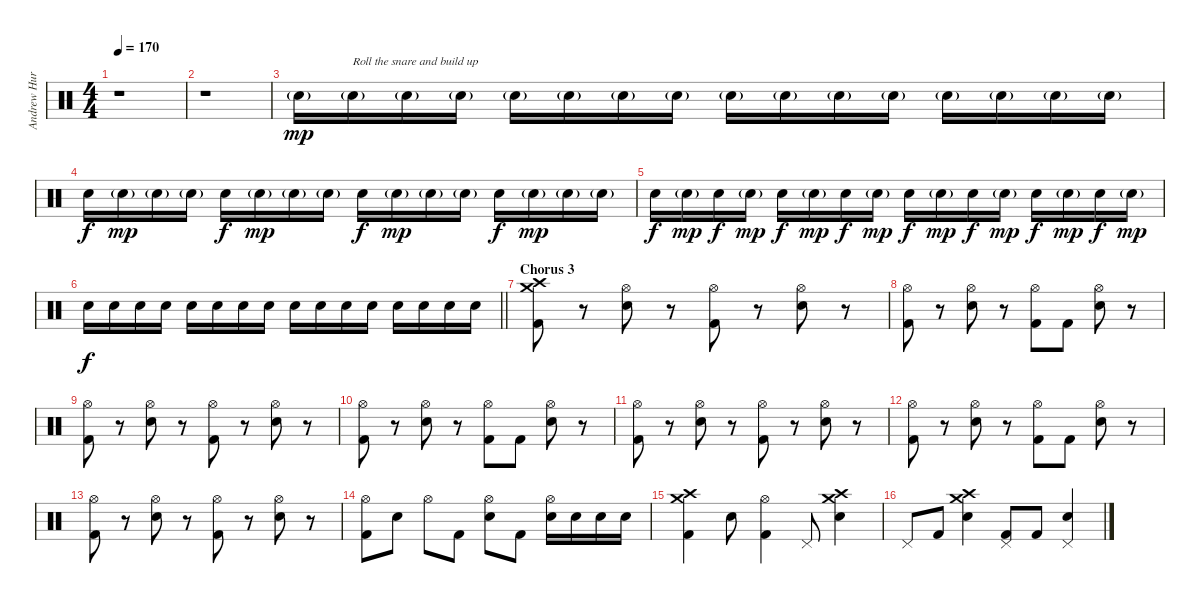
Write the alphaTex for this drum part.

\track ("Andrew Hurley (Drums)" "Andrew Hur") {instrument percussion}
\staff {score}
\articulation defaults
\ts (4 4)
\tempo 170
\clef neutral
\ks c
r.1{dy f} |
r.1 |
"Electric Snare (hit)"{g}.16{dy mp} "Electric Snare (hit)"{g}.16{txt "Roll the snare and build up"} "Electric Snare (hit)"{g}.16 "Electric Snare (hit)"{g}.16 "Electric Snare (hit)"{g}.16 "Electric Snare (hit)"{g}.16 "Electric Snare (hit)"{g}.16 "Electric Snare (hit)"{g}.16 "Electric Snare (hit)"{g}.16 "Electric Snare (hit)"{g}.16 "Electric Snare (hit)"{g}.16 "Electric Snare (hit)"{g}.16 "Electric Snare (hit)"{g}.16 "Electric Snare (hit)"{g}.16 "Electric Snare (hit)"{g}.16 "Electric Snare (hit)"{g}.16 |
"Electric Snare (hit)".16{dy f} "Electric Snare (hit)"{g}.16{dy mp} "Electric Snare (hit)"{g}.16 "Electric Snare (hit)"{g}.16 "Electric Snare (hit)".16{dy f} "Electric Snare (hit)"{g}.16{dy mp} "Electric Snare (hit)"{g}.16 "Electric Snare (hit)"{g}.16 "Electric Snare (hit)".16{dy f} "Electric Snare (hit)"{g}.16{dy mp} "Electric Snare (hit)"{g}.16 "Electric Snare (hit)"{g}.16 "Electric Snare (hit)".16{dy f} "Electric Snare (hit)"{g}.16{dy mp} "Electric Snare (hit)"{g}.16 "Electric Snare (hit)"{g}.16 |
"Electric Snare (hit)".16{dy f} "Electric Snare (hit)"{g}.16{dy mp} "Electric Snare (hit)".16{dy f} "Electric Snare (hit)"{g}.16{dy mp} "Electric Snare (hit)".16{dy f} "Electric Snare (hit)"{g}.16{dy mp} "Electric Snare (hit)".16{dy f} "Electric Snare (hit)"{g}.16{dy mp} "Electric Snare (hit)".16{dy f} "Electric Snare (hit)"{g}.16{dy mp} "Electric Snare (hit)".16{dy f} "Electric Snare (hit)"{g}.16{dy mp} "Electric Snare (hit)".16{dy f} "Electric Snare (hit)"{g}.16{dy mp} "Electric Snare (hit)".16{dy f} "Electric Snare (hit)"{g}.16{dy mp} |
\barLineRight lightlight "Electric Snare (hit)".16{dy f} "Electric Snare (hit)".16 "Electric Snare (hit)".16 "Electric Snare (hit)".16 "Electric Snare (hit)".16 "Electric Snare (hit)".16 "Electric Snare (hit)".16 "Electric Snare (hit)".16 "Electric Snare (hit)".16 "Electric Snare (hit)".16 "Electric Snare (hit)".16 "Electric Snare (hit)".16 "Electric Snare (hit)".16 "Electric Snare (hit)".16 "Electric Snare (hit)".16 "Electric Snare (hit)".16
|
\section ("" "Chorus 3")
("Crash high (hit)" "Crash medium (hit)" "Kick (hit) 2").8 r.8 ("Hi-Hat (open)" "Electric Snare (hit)").8 r.8 ("Hi-Hat (open)" "Kick (hit) 2").8 r.8 ("Hi-Hat (open)" "Electric Snare (hit)").8 r.8 |
("Hi-Hat (open)" "Kick (hit) 2").8 r.8 ("Hi-Hat (open)" "Electric Snare (hit)").8 r.8 ("Hi-Hat (open)" "Kick (hit) 2").8 "Kick (hit) 2".8 ("Hi-Hat (open)" "Electric Snare (hit)").8 r.8 |
("Hi-Hat (open)" "Kick (hit) 2").8 r.8 ("Hi-Hat (open)" "Electric Snare (hit)").8 r.8 ("Hi-Hat (open)" "Kick (hit) 2").8 r.8 ("Hi-Hat (open)" "Electric Snare (hit)").8 r.8 |
("Hi-Hat (open)" "Kick (hit) 2").8 r.8 ("Hi-Hat (open)" "Electric Snare (hit)").8 r.8 ("Hi-Hat (open)" "Kick (hit) 2").8 "Kick (hit) 2".8 ("Hi-Hat (open)" "Electric Snare (hit)").8 r.8 |
("Hi-Hat (open)" "Kick (hit) 2").8 r.8 ("Hi-Hat (open)" "Electric Snare (hit)").8 r.8 ("Hi-Hat (open)" "Kick (hit) 2").8 r.8 ("Hi-Hat (open)" "Electric Snare (hit)").8 r.8 |
("Hi-Hat (open)" "Kick (hit) 2").8 r.8 ("Hi-Hat (open)" "Electric Snare (hit)").8 r.8 ("Hi-Hat (open)" "Kick (hit) 2").8 "Kick (hit) 2".8 ("Hi-Hat (open)" "Electric Snare (hit)").8 r.8 |
("Hi-Hat (open)" "Kick (hit) 2").8 r.8 ("Hi-Hat (open)" "Electric Snare (hit)").8 r.8 ("Hi-Hat (open)" "Kick (hit) 2").8 r.8 ("Hi-Hat (open)" "Electric Snare (hit)").8 r.8 |
("Hi-Hat (open)" "Kick (hit) 2").8 "Electric Snare (hit)".8 "Hi-Hat (open)".8 "Kick (hit) 2".8 ("Hi-Hat (open)" "Electric Snare (hit)").8 "Kick (hit) 2".8 ("Hi-Hat (open)" "Electric Snare (hit)").16 "Electric Snare (hit)".16 "Electric Snare (hit)".16 "Electric Snare (hit)".16 |
("Crash high (hit)" "Crash medium (hit)" "Kick (hit) 2").4 "Electric Snare (hit)".8 ("Hi-Hat (open)" "Kick (hit) 2").4 "Pedal Hi-Hat (hit)".8 ("Crash high (hit)" "Crash medium (hit)" "Electric Snare (hit)").4 |
"Pedal Hi-Hat (hit)".8 "Kick (hit) 2".8 ("Crash medium (hit)" "Crash high (hit)" "Electric Snare (hit)").4 ("Pedal Hi-Hat (hit)" "Kick (hit) 2").8 "Kick (hit) 2".8 ("Pedal Hi-Hat (hit)" "Electric Snare (hit)").4
